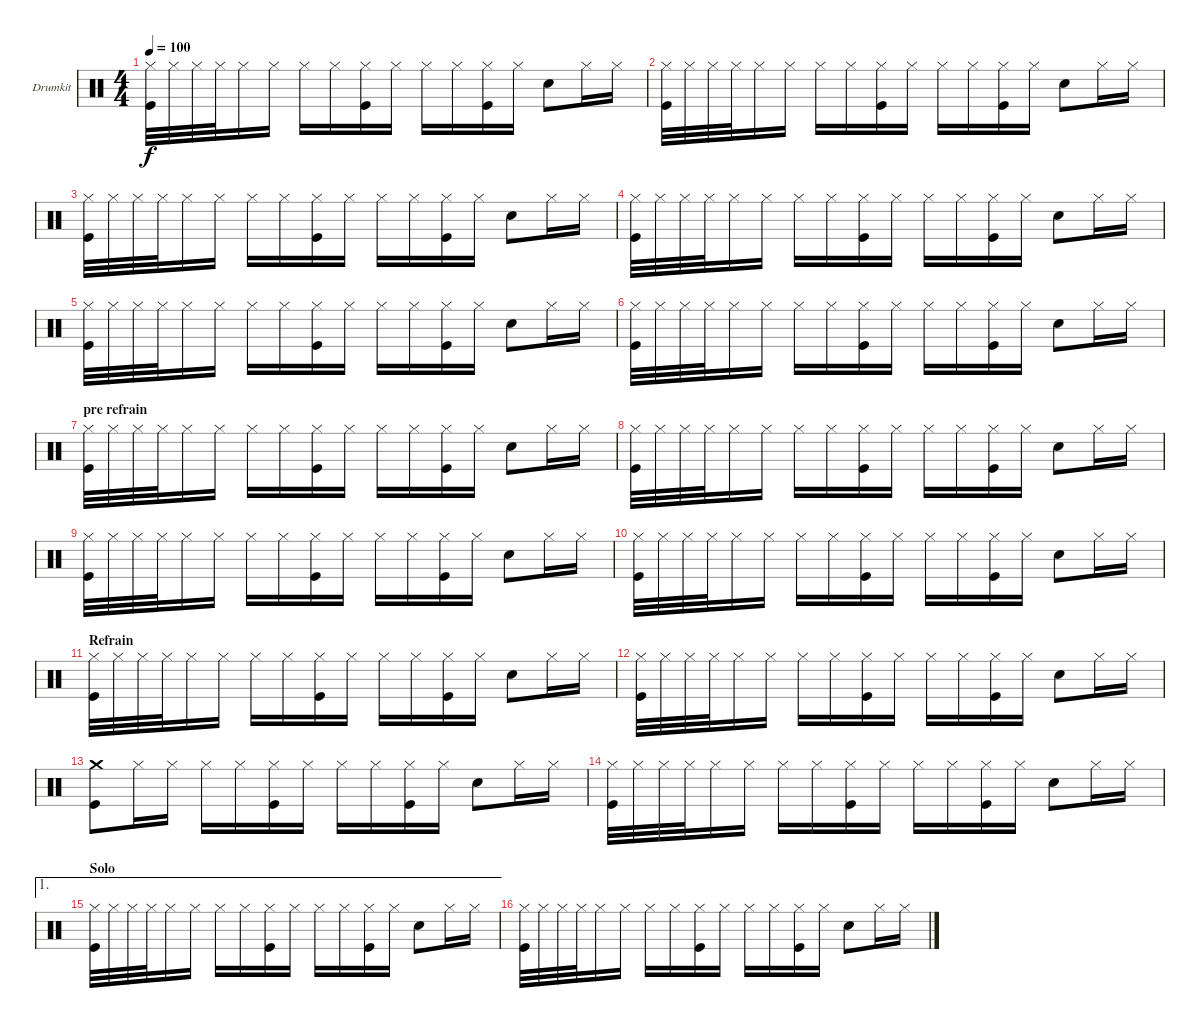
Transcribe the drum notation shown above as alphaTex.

\bracketExtendMode groupsimilarinstruments
\firstSystemTrackNameOrientation horizontal
\otherSystemsTrackNameOrientation horizontal
\track ("Drumkit" "Drumkit") {instrument percussion}
\staff {score}
\articulation defaults
\ts (4 4)
\tempo 100
\clef neutral
\ks c
("Hi-Hat (closed)" "Kick (hit)").32{dy f} "Hi-Hat (closed)".32 "Hi-Hat (closed)".32 "Hi-Hat (closed)".32 "Hi-Hat (closed)".16 "Hi-Hat (closed)".16 "Hi-Hat (closed)".16 "Hi-Hat (closed)".16 ("Hi-Hat (closed)" "Kick (hit)").16 "Hi-Hat (closed)".16 "Hi-Hat (closed)".16 "Hi-Hat (closed)".16 ("Hi-Hat (closed)" "Kick (hit)").16 "Hi-Hat (closed)".16 "Snare (hit) 2".8 "Hi-Hat (closed)".16 "Hi-Hat (closed)".16 |
("Hi-Hat (closed)" "Kick (hit)").32 "Hi-Hat (closed)".32 "Hi-Hat (closed)".32 "Hi-Hat (closed)".32 "Hi-Hat (closed)".16 "Hi-Hat (closed)".16 "Hi-Hat (closed)".16 "Hi-Hat (closed)".16 ("Hi-Hat (closed)" "Kick (hit)").16 "Hi-Hat (closed)".16 "Hi-Hat (closed)".16 "Hi-Hat (closed)".16 ("Hi-Hat (closed)" "Kick (hit)").16 "Hi-Hat (closed)".16 "Snare (hit) 2".8 "Hi-Hat (closed)".16 "Hi-Hat (closed)".16 |
("Hi-Hat (closed)" "Kick (hit)").32 "Hi-Hat (closed)".32 "Hi-Hat (closed)".32 "Hi-Hat (closed)".32 "Hi-Hat (closed)".16 "Hi-Hat (closed)".16 "Hi-Hat (closed)".16 "Hi-Hat (closed)".16 ("Hi-Hat (closed)" "Kick (hit)").16 "Hi-Hat (closed)".16 "Hi-Hat (closed)".16 "Hi-Hat (closed)".16 ("Hi-Hat (closed)" "Kick (hit)").16 "Hi-Hat (closed)".16 "Snare (hit) 2".8 "Hi-Hat (closed)".16 "Hi-Hat (closed)".16 |
("Hi-Hat (closed)" "Kick (hit)").32 "Hi-Hat (closed)".32 "Hi-Hat (closed)".32 "Hi-Hat (closed)".32 "Hi-Hat (closed)".16 "Hi-Hat (closed)".16 "Hi-Hat (closed)".16 "Hi-Hat (closed)".16 ("Hi-Hat (closed)" "Kick (hit)").16 "Hi-Hat (closed)".16 "Hi-Hat (closed)".16 "Hi-Hat (closed)".16 ("Hi-Hat (closed)" "Kick (hit)").16 "Hi-Hat (closed)".16 "Snare (hit) 2".8 "Hi-Hat (closed)".16 "Hi-Hat (closed)".16 |
("Hi-Hat (closed)" "Kick (hit)").32 "Hi-Hat (closed)".32 "Hi-Hat (closed)".32 "Hi-Hat (closed)".32 "Hi-Hat (closed)".16 "Hi-Hat (closed)".16 "Hi-Hat (closed)".16 "Hi-Hat (closed)".16 ("Hi-Hat (closed)" "Kick (hit)").16 "Hi-Hat (closed)".16 "Hi-Hat (closed)".16 "Hi-Hat (closed)".16 ("Hi-Hat (closed)" "Kick (hit)").16 "Hi-Hat (closed)".16 "Snare (hit) 2".8 "Hi-Hat (closed)".16 "Hi-Hat (closed)".16 |
("Hi-Hat (closed)" "Kick (hit)").32 "Hi-Hat (closed)".32 "Hi-Hat (closed)".32 "Hi-Hat (closed)".32 "Hi-Hat (closed)".16 "Hi-Hat (closed)".16 "Hi-Hat (closed)".16 "Hi-Hat (closed)".16 ("Hi-Hat (closed)" "Kick (hit)").16 "Hi-Hat (closed)".16 "Hi-Hat (closed)".16 "Hi-Hat (closed)".16 ("Hi-Hat (closed)" "Kick (hit)").16 "Hi-Hat (closed)".16 "Snare (hit) 2".8 "Hi-Hat (closed)".16 "Hi-Hat (closed)".16 |
\section ("" "pre refrain")
("Hi-Hat (closed)" "Kick (hit)").32 "Hi-Hat (closed)".32 "Hi-Hat (closed)".32 "Hi-Hat (closed)".32 "Hi-Hat (closed)".16 "Hi-Hat (closed)".16 "Hi-Hat (closed)".16 "Hi-Hat (closed)".16 ("Hi-Hat (closed)" "Kick (hit)").16 "Hi-Hat (closed)".16 "Hi-Hat (closed)".16 "Hi-Hat (closed)".16 ("Hi-Hat (closed)" "Kick (hit)").16 "Hi-Hat (closed)".16 "Snare (hit) 2".8 "Hi-Hat (closed)".16 "Hi-Hat (closed)".16 |
("Hi-Hat (closed)" "Kick (hit)").32 "Hi-Hat (closed)".32 "Hi-Hat (closed)".32 "Hi-Hat (closed)".32 "Hi-Hat (closed)".16 "Hi-Hat (closed)".16 "Hi-Hat (closed)".16 "Hi-Hat (closed)".16 ("Hi-Hat (closed)" "Kick (hit)").16 "Hi-Hat (closed)".16 "Hi-Hat (closed)".16 "Hi-Hat (closed)".16 ("Hi-Hat (closed)" "Kick (hit)").16 "Hi-Hat (closed)".16 "Snare (hit) 2".8 "Hi-Hat (closed)".16 "Hi-Hat (closed)".16 |
("Hi-Hat (closed)" "Kick (hit)").32 "Hi-Hat (closed)".32 "Hi-Hat (closed)".32 "Hi-Hat (closed)".32 "Hi-Hat (closed)".16 "Hi-Hat (closed)".16 "Hi-Hat (closed)".16 "Hi-Hat (closed)".16 ("Hi-Hat (closed)" "Kick (hit)").16 "Hi-Hat (closed)".16 "Hi-Hat (closed)".16 "Hi-Hat (closed)".16 ("Hi-Hat (closed)" "Kick (hit)").16 "Hi-Hat (closed)".16 "Snare (hit) 2".8 "Hi-Hat (closed)".16 "Hi-Hat (closed)".16 |
("Hi-Hat (closed)" "Kick (hit)").32 "Hi-Hat (closed)".32 "Hi-Hat (closed)".32 "Hi-Hat (closed)".32 "Hi-Hat (closed)".16 "Hi-Hat (closed)".16 "Hi-Hat (closed)".16 "Hi-Hat (closed)".16 ("Hi-Hat (closed)" "Kick (hit)").16 "Hi-Hat (closed)".16 "Hi-Hat (closed)".16 "Hi-Hat (closed)".16 ("Hi-Hat (closed)" "Kick (hit)").16 "Hi-Hat (closed)".16 "Snare (hit) 2".8 "Hi-Hat (closed)".16 "Hi-Hat (closed)".16 |
\section ("" "Refrain")
("Hi-Hat (closed)" "Kick (hit)").32 "Hi-Hat (closed)".32 "Hi-Hat (closed)".32 "Hi-Hat (closed)".32 "Hi-Hat (closed)".16 "Hi-Hat (closed)".16 "Hi-Hat (closed)".16 "Hi-Hat (closed)".16 ("Hi-Hat (closed)" "Kick (hit)").16 "Hi-Hat (closed)".16 "Hi-Hat (closed)".16 "Hi-Hat (closed)".16 ("Hi-Hat (closed)" "Kick (hit)").16 "Hi-Hat (closed)".16 "Snare (hit) 2".8 "Hi-Hat (closed)".16 "Hi-Hat (closed)".16 |
("Hi-Hat (closed)" "Kick (hit)").32 "Hi-Hat (closed)".32 "Hi-Hat (closed)".32 "Hi-Hat (closed)".32 "Hi-Hat (closed)".16 "Hi-Hat (closed)".16 "Hi-Hat (closed)".16 "Hi-Hat (closed)".16 ("Hi-Hat (closed)" "Kick (hit)").16 "Hi-Hat (closed)".16 "Hi-Hat (closed)".16 "Hi-Hat (closed)".16 ("Hi-Hat (closed)" "Kick (hit)").16 "Hi-Hat (closed)".16 "Snare (hit) 2".8 "Hi-Hat (closed)".16 "Hi-Hat (closed)".16 |
("Crash medium (hit)" "Kick (hit)").8 "Hi-Hat (closed)".16 "Hi-Hat (closed)".16 "Hi-Hat (closed)".16 "Hi-Hat (closed)".16 ("Hi-Hat (closed)" "Kick (hit)").16 "Hi-Hat (closed)".16 "Hi-Hat (closed)".16 "Hi-Hat (closed)".16 ("Hi-Hat (closed)" "Kick (hit)").16 "Hi-Hat (closed)".16 "Snare (hit) 2".8 "Hi-Hat (closed)".16 "Hi-Hat (closed)".16 |
("Hi-Hat (closed)" "Kick (hit)").32 "Hi-Hat (closed)".32 "Hi-Hat (closed)".32 "Hi-Hat (closed)".32 "Hi-Hat (closed)".16 "Hi-Hat (closed)".16 "Hi-Hat (closed)".16 "Hi-Hat (closed)".16 ("Hi-Hat (closed)" "Kick (hit)").16 "Hi-Hat (closed)".16 "Hi-Hat (closed)".16 "Hi-Hat (closed)".16 ("Hi-Hat (closed)" "Kick (hit)").16 "Hi-Hat (closed)".16 "Snare (hit) 2".8 "Hi-Hat (closed)".16 "Hi-Hat (closed)".16 |
\ae 1
\section ("" "Solo")
("Hi-Hat (closed)" "Kick (hit)").32 "Hi-Hat (closed)".32 "Hi-Hat (closed)".32 "Hi-Hat (closed)".32 "Hi-Hat (closed)".16 "Hi-Hat (closed)".16 "Hi-Hat (closed)".16 "Hi-Hat (closed)".16 ("Hi-Hat (closed)" "Kick (hit)").16 "Hi-Hat (closed)".16 "Hi-Hat (closed)".16 "Hi-Hat (closed)".16 ("Hi-Hat (closed)" "Kick (hit)").16 "Hi-Hat (closed)".16 "Snare (hit) 2".8 "Hi-Hat (closed)".16 "Hi-Hat (closed)".16 |
("Hi-Hat (closed)" "Kick (hit)").32 "Hi-Hat (closed)".32 "Hi-Hat (closed)".32 "Hi-Hat (closed)".32 "Hi-Hat (closed)".16 "Hi-Hat (closed)".16 "Hi-Hat (closed)".16 "Hi-Hat (closed)".16 ("Hi-Hat (closed)" "Kick (hit)").16 "Hi-Hat (closed)".16 "Hi-Hat (closed)".16 "Hi-Hat (closed)".16 ("Hi-Hat (closed)" "Kick (hit)").16 "Hi-Hat (closed)".16 "Snare (hit) 2".8 "Hi-Hat (closed)".16 "Hi-Hat (closed)".16
